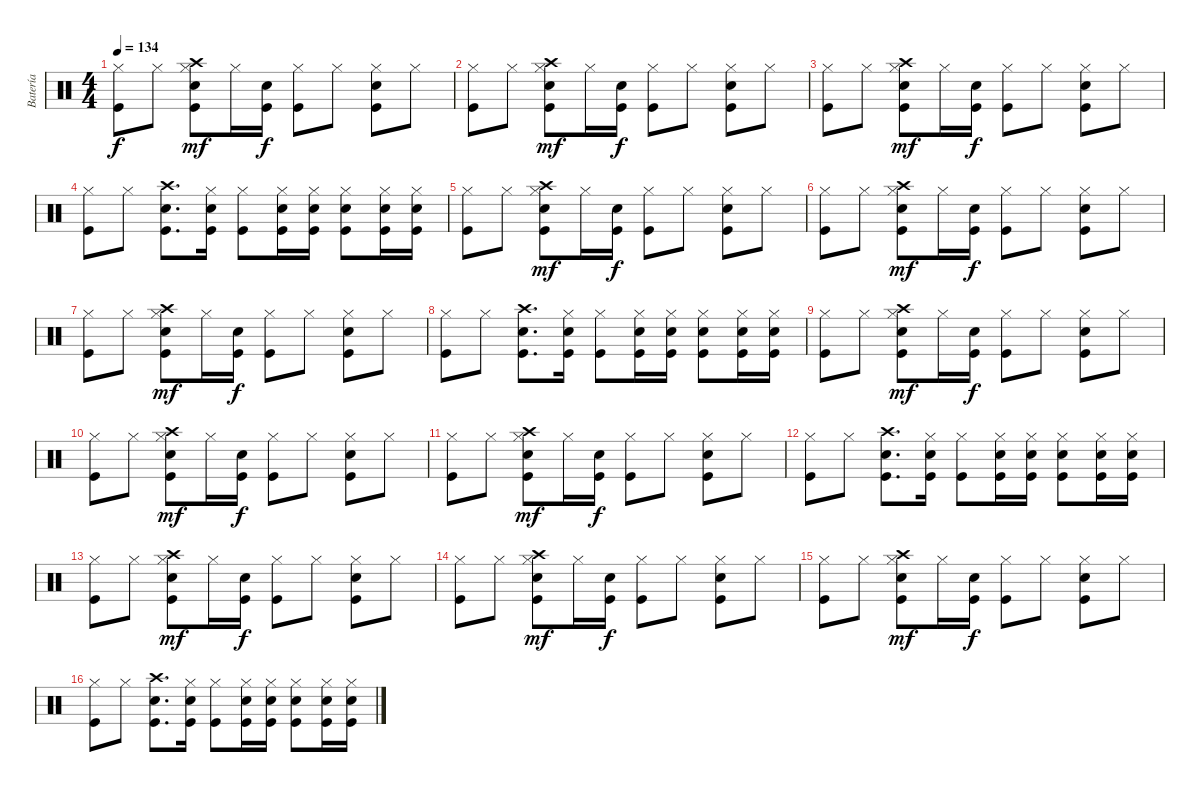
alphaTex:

\track ("Batería" "Batería") {instrument percussion}
\staff {score}
\articulation defaults
\ts (4 4)
\tempo 134
\clef neutral
\ks c
("Hi-Hat (closed)" "Kick (hit)").8{dy f} "Hi-Hat (closed)".8 ("Snare (hit) 2" "Crash high (hit)" "Kick (hit)" "Hi-Hat (closed)").8{dy mf} "Hi-Hat (closed)".16 ("Snare (hit) 2" "Kick (hit)").16{dy f} ("Hi-Hat (closed)" "Kick (hit)").8 "Hi-Hat (closed)".8 ("Hi-Hat (closed)" "Snare (hit) 2" "Kick (hit)").8 "Hi-Hat (closed)".8 |
("Hi-Hat (closed)" "Kick (hit)").8 "Hi-Hat (closed)".8 ("Snare (hit) 2" "Crash high (hit)" "Kick (hit)" "Hi-Hat (closed)").8{dy mf} "Hi-Hat (closed)".16 ("Snare (hit) 2" "Kick (hit)").16{dy f} ("Hi-Hat (closed)" "Kick (hit)").8 "Hi-Hat (closed)".8 ("Hi-Hat (closed)" "Snare (hit) 2" "Kick (hit)").8 "Hi-Hat (closed)".8 |
("Hi-Hat (closed)" "Kick (hit)").8 "Hi-Hat (closed)".8 ("Snare (hit) 2" "Crash high (hit)" "Kick (hit)" "Hi-Hat (closed)").8{dy mf} "Hi-Hat (closed)".16 ("Snare (hit) 2" "Kick (hit)").16{dy f} ("Hi-Hat (closed)" "Kick (hit)").8 "Hi-Hat (closed)".8 ("Hi-Hat (closed)" "Snare (hit) 2" "Kick (hit)").8 "Hi-Hat (closed)".8 |
("Hi-Hat (closed)" "Kick (hit)").8 "Hi-Hat (closed)".8 ("Snare (hit) 2" "Crash high (hit)" "Kick (hit)").8{d} ("Hi-Hat (closed)" "Snare (hit) 2" "Kick (hit)").16 ("Hi-Hat (closed)" "Kick (hit)").8 ("Hi-Hat (closed)" "Snare (hit) 2" "Kick (hit)").16 ("Hi-Hat (closed)" "Snare (hit) 2" "Kick (hit)").16 ("Hi-Hat (closed)" "Snare (hit) 2" "Kick (hit)").8 ("Hi-Hat (closed)" "Snare (hit) 2" "Kick (hit)").16 ("Hi-Hat (closed)" "Snare (hit) 2" "Kick (hit)").16 |
("Hi-Hat (closed)" "Kick (hit)").8 "Hi-Hat (closed)".8 ("Snare (hit) 2" "Crash high (hit)" "Kick (hit)" "Hi-Hat (closed)").8{dy mf} "Hi-Hat (closed)".16 ("Snare (hit) 2" "Kick (hit)").16{dy f} ("Hi-Hat (closed)" "Kick (hit)").8 "Hi-Hat (closed)".8 ("Hi-Hat (closed)" "Snare (hit) 2" "Kick (hit)").8 "Hi-Hat (closed)".8 |
("Hi-Hat (closed)" "Kick (hit)").8 "Hi-Hat (closed)".8 ("Snare (hit) 2" "Crash high (hit)" "Kick (hit)" "Hi-Hat (closed)").8{dy mf} "Hi-Hat (closed)".16 ("Snare (hit) 2" "Kick (hit)").16{dy f} ("Hi-Hat (closed)" "Kick (hit)").8 "Hi-Hat (closed)".8 ("Hi-Hat (closed)" "Snare (hit) 2" "Kick (hit)").8 "Hi-Hat (closed)".8 |
("Hi-Hat (closed)" "Kick (hit)").8 "Hi-Hat (closed)".8 ("Snare (hit) 2" "Crash high (hit)" "Kick (hit)" "Hi-Hat (closed)").8{dy mf} "Hi-Hat (closed)".16 ("Snare (hit) 2" "Kick (hit)").16{dy f} ("Hi-Hat (closed)" "Kick (hit)").8 "Hi-Hat (closed)".8 ("Hi-Hat (closed)" "Snare (hit) 2" "Kick (hit)").8 "Hi-Hat (closed)".8 |
("Hi-Hat (closed)" "Kick (hit)").8 "Hi-Hat (closed)".8 ("Snare (hit) 2" "Crash high (hit)" "Kick (hit)").8{d} ("Hi-Hat (closed)" "Snare (hit) 2" "Kick (hit)").16 ("Hi-Hat (closed)" "Kick (hit)").8 ("Hi-Hat (closed)" "Snare (hit) 2" "Kick (hit)").16 ("Hi-Hat (closed)" "Snare (hit) 2" "Kick (hit)").16 ("Hi-Hat (closed)" "Snare (hit) 2" "Kick (hit)").8 ("Hi-Hat (closed)" "Snare (hit) 2" "Kick (hit)").16 ("Hi-Hat (closed)" "Snare (hit) 2" "Kick (hit)").16 |
("Hi-Hat (closed)" "Kick (hit)").8 "Hi-Hat (closed)".8 ("Snare (hit) 2" "Crash high (hit)" "Kick (hit)" "Hi-Hat (closed)").8{dy mf} "Hi-Hat (closed)".16 ("Snare (hit) 2" "Kick (hit)").16{dy f} ("Hi-Hat (closed)" "Kick (hit)").8 "Hi-Hat (closed)".8 ("Hi-Hat (closed)" "Snare (hit) 2" "Kick (hit)").8 "Hi-Hat (closed)".8 |
("Hi-Hat (closed)" "Kick (hit)").8 "Hi-Hat (closed)".8 ("Snare (hit) 2" "Crash high (hit)" "Kick (hit)" "Hi-Hat (closed)").8{dy mf} "Hi-Hat (closed)".16 ("Snare (hit) 2" "Kick (hit)").16{dy f} ("Hi-Hat (closed)" "Kick (hit)").8 "Hi-Hat (closed)".8 ("Hi-Hat (closed)" "Snare (hit) 2" "Kick (hit)").8 "Hi-Hat (closed)".8 |
("Hi-Hat (closed)" "Kick (hit)").8 "Hi-Hat (closed)".8 ("Snare (hit) 2" "Crash high (hit)" "Kick (hit)" "Hi-Hat (closed)").8{dy mf} "Hi-Hat (closed)".16 ("Snare (hit) 2" "Kick (hit)").16{dy f} ("Hi-Hat (closed)" "Kick (hit)").8 "Hi-Hat (closed)".8 ("Hi-Hat (closed)" "Snare (hit) 2" "Kick (hit)").8 "Hi-Hat (closed)".8 |
("Hi-Hat (closed)" "Kick (hit)").8 "Hi-Hat (closed)".8 ("Snare (hit) 2" "Crash high (hit)" "Kick (hit)").8{d} ("Hi-Hat (closed)" "Snare (hit) 2" "Kick (hit)").16 ("Hi-Hat (closed)" "Kick (hit)").8 ("Hi-Hat (closed)" "Snare (hit) 2" "Kick (hit)").16 ("Hi-Hat (closed)" "Snare (hit) 2" "Kick (hit)").16 ("Hi-Hat (closed)" "Snare (hit) 2" "Kick (hit)").8 ("Hi-Hat (closed)" "Snare (hit) 2" "Kick (hit)").16 ("Hi-Hat (closed)" "Snare (hit) 2" "Kick (hit)").16 |
("Hi-Hat (closed)" "Kick (hit)").8 "Hi-Hat (closed)".8 ("Snare (hit) 2" "Crash high (hit)" "Kick (hit)" "Hi-Hat (closed)").8{dy mf} "Hi-Hat (closed)".16 ("Snare (hit) 2" "Kick (hit)").16{dy f} ("Hi-Hat (closed)" "Kick (hit)").8 "Hi-Hat (closed)".8 ("Hi-Hat (closed)" "Snare (hit) 2" "Kick (hit)").8 "Hi-Hat (closed)".8 |
("Hi-Hat (closed)" "Kick (hit)").8 "Hi-Hat (closed)".8 ("Snare (hit) 2" "Crash high (hit)" "Kick (hit)" "Hi-Hat (closed)").8{dy mf} "Hi-Hat (closed)".16 ("Snare (hit) 2" "Kick (hit)").16{dy f} ("Hi-Hat (closed)" "Kick (hit)").8 "Hi-Hat (closed)".8 ("Hi-Hat (closed)" "Snare (hit) 2" "Kick (hit)").8 "Hi-Hat (closed)".8 |
("Hi-Hat (closed)" "Kick (hit)").8 "Hi-Hat (closed)".8 ("Snare (hit) 2" "Crash high (hit)" "Kick (hit)" "Hi-Hat (closed)").8{dy mf} "Hi-Hat (closed)".16 ("Snare (hit) 2" "Kick (hit)").16{dy f} ("Hi-Hat (closed)" "Kick (hit)").8 "Hi-Hat (closed)".8 ("Hi-Hat (closed)" "Snare (hit) 2" "Kick (hit)").8 "Hi-Hat (closed)".8 |
("Hi-Hat (closed)" "Kick (hit)").8 "Hi-Hat (closed)".8 ("Snare (hit) 2" "Crash high (hit)" "Kick (hit)").8{d} ("Hi-Hat (closed)" "Snare (hit) 2" "Kick (hit)").16 ("Hi-Hat (closed)" "Kick (hit)").8 ("Hi-Hat (closed)" "Snare (hit) 2" "Kick (hit)").16 ("Hi-Hat (closed)" "Snare (hit) 2" "Kick (hit)").16 ("Hi-Hat (closed)" "Snare (hit) 2" "Kick (hit)").8 ("Hi-Hat (closed)" "Snare (hit) 2" "Kick (hit)").16 ("Hi-Hat (closed)" "Snare (hit) 2" "Kick (hit)").16
